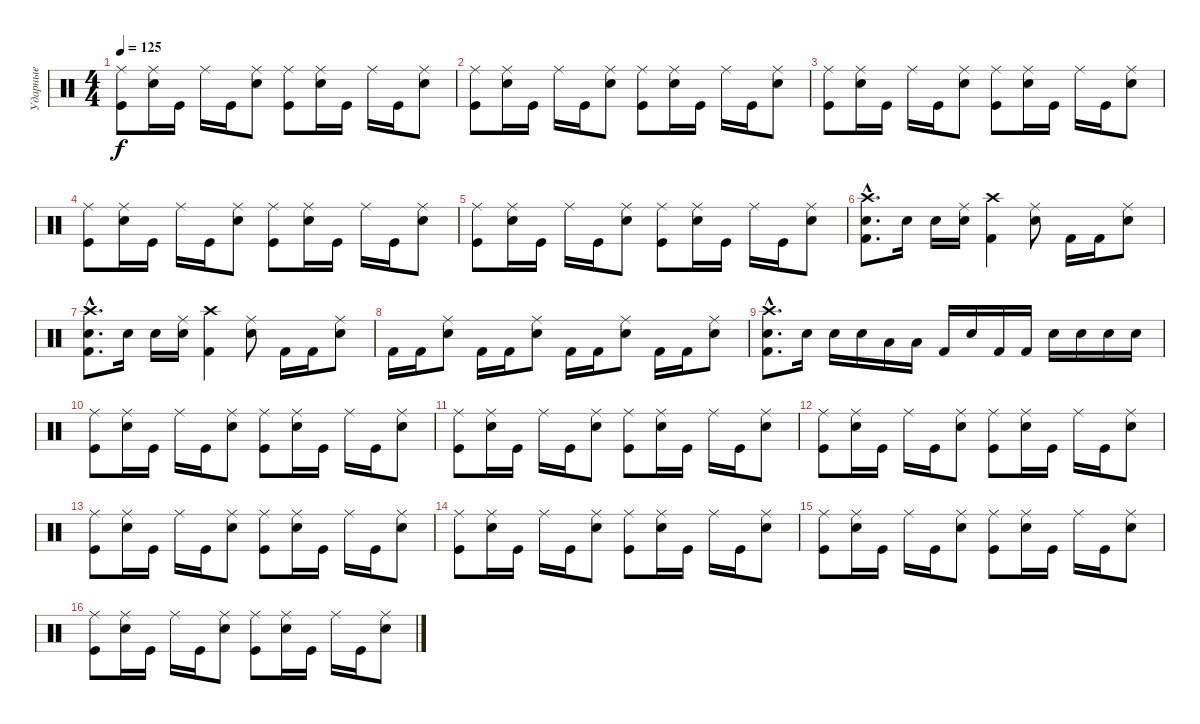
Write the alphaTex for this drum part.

\track ("Ударные" "Ударные") {instrument percussion}
\staff {score}
\articulation defaults
\ts (4 4)
\tempo 125
\clef neutral
\ks c
("Ride (middle)" "Kick (hit)").8{dy f} ("Ride (middle)" "Electric Snare (hit)").16 "Kick (hit)".16 "Ride (middle)".16 "Kick (hit)".16 ("Ride (middle)" "Electric Snare (hit)").8 ("Ride (middle)" "Kick (hit)").8 ("Ride (middle)" "Electric Snare (hit)").16 "Kick (hit)".16 "Ride (middle)".16 "Kick (hit)".16 ("Ride (middle)" "Electric Snare (hit)").8 |
("Ride (middle)" "Kick (hit)").8 ("Ride (middle)" "Electric Snare (hit)").16 "Kick (hit)".16 "Ride (middle)".16 "Kick (hit)".16 ("Ride (middle)" "Electric Snare (hit)").8 ("Ride (middle)" "Kick (hit)").8 ("Ride (middle)" "Electric Snare (hit)").16 "Kick (hit)".16 "Ride (middle)".16 "Kick (hit)".16 ("Ride (middle)" "Electric Snare (hit)").8 |
("Ride (middle)" "Kick (hit)").8 ("Ride (middle)" "Electric Snare (hit)").16 "Kick (hit)".16 "Ride (middle)".16 "Kick (hit)".16 ("Ride (middle)" "Electric Snare (hit)").8 ("Ride (middle)" "Kick (hit)").8 ("Ride (middle)" "Electric Snare (hit)").16 "Kick (hit)".16 "Ride (middle)".16 "Kick (hit)".16 ("Ride (middle)" "Electric Snare (hit)").8 |
("Ride (middle)" "Kick (hit)").8 ("Ride (middle)" "Electric Snare (hit)").16 "Kick (hit)".16 "Ride (middle)".16 "Kick (hit)".16 ("Ride (middle)" "Electric Snare (hit)").8 ("Ride (middle)" "Kick (hit)").8 ("Ride (middle)" "Electric Snare (hit)").16 "Kick (hit)".16 "Ride (middle)".16 "Kick (hit)".16 ("Ride (middle)" "Electric Snare (hit)").8 |
("Ride (middle)" "Kick (hit)").8 ("Ride (middle)" "Electric Snare (hit)").16 "Kick (hit)".16 "Ride (middle)".16 "Kick (hit)".16 ("Ride (middle)" "Electric Snare (hit)").8 ("Ride (middle)" "Kick (hit)").8 ("Ride (middle)" "Electric Snare (hit)").16 "Kick (hit)".16 "Ride (middle)".16 "Kick (hit)".16 ("Ride (middle)" "Electric Snare (hit)").8 |
("Electric Snare (hit)"{hac} "Kick (hit) 2"{hac} "Crash high (hit)"{hac}).8{d} "Electric Snare (hit)".16 "Electric Snare (hit)".16 ("Electric Snare (hit)" "Ride (middle)").16 ("Kick (hit) 2" "Crash high (hit)").4 ("Electric Snare (hit)" "Ride (middle)").8 "Kick (hit) 2".16 "Kick (hit) 2".16 ("Electric Snare (hit)" "Ride (middle)").8 |
("Electric Snare (hit)"{hac} "Kick (hit) 2"{hac} "Crash high (hit)"{hac}).8{d} "Electric Snare (hit)".16 "Electric Snare (hit)".16 ("Electric Snare (hit)" "Ride (middle)").16 ("Kick (hit) 2" "Crash high (hit)").4 ("Electric Snare (hit)" "Ride (middle)").8 "Kick (hit) 2".16 "Kick (hit) 2".16 ("Electric Snare (hit)" "Ride (middle)").8 |
"Kick (hit) 2".16 "Kick (hit) 2".16 ("Electric Snare (hit)" "Ride (middle)").8 "Kick (hit) 2".16 "Kick (hit) 2".16 ("Electric Snare (hit)" "Ride (middle)").8 "Kick (hit) 2".16 "Kick (hit) 2".16 ("Electric Snare (hit)" "Ride (middle)").8 "Kick (hit) 2".16 "Kick (hit) 2".16 ("Electric Snare (hit)" "Ride (middle)").8 |
("Electric Snare (hit)"{hac} "Kick (hit) 2"{hac} "Crash high (hit)"{hac}).8{d} "Electric Snare (hit)".16 "Electric Snare (hit)".16 "Electric Snare (hit)".16 "Low Tom (hit)".16 "Low Tom (hit)".16 "Kick (hit) 2".16 "Electric Snare (hit)".16 "Kick (hit) 2".16 "Kick (hit) 2".16 "Electric Snare (hit)".16 "Electric Snare (hit)".16 "Electric Snare (hit)".16 "Electric Snare (hit)".16 |
("Ride (middle)" "Kick (hit)").8 ("Ride (middle)" "Electric Snare (hit)").16 "Kick (hit)".16 "Ride (middle)".16 "Kick (hit)".16 ("Ride (middle)" "Electric Snare (hit)").8 ("Ride (middle)" "Kick (hit)").8 ("Ride (middle)" "Electric Snare (hit)").16 "Kick (hit)".16 "Ride (middle)".16 "Kick (hit)".16 ("Ride (middle)" "Electric Snare (hit)").8 |
("Ride (middle)" "Kick (hit)").8 ("Ride (middle)" "Electric Snare (hit)").16 "Kick (hit)".16 "Ride (middle)".16 "Kick (hit)".16 ("Ride (middle)" "Electric Snare (hit)").8 ("Ride (middle)" "Kick (hit)").8 ("Ride (middle)" "Electric Snare (hit)").16 "Kick (hit)".16 "Ride (middle)".16 "Kick (hit)".16 ("Ride (middle)" "Electric Snare (hit)").8 |
("Ride (middle)" "Kick (hit)").8 ("Ride (middle)" "Electric Snare (hit)").16 "Kick (hit)".16 "Ride (middle)".16 "Kick (hit)".16 ("Ride (middle)" "Electric Snare (hit)").8 ("Ride (middle)" "Kick (hit)").8 ("Ride (middle)" "Electric Snare (hit)").16 "Kick (hit)".16 "Ride (middle)".16 "Kick (hit)".16 ("Ride (middle)" "Electric Snare (hit)").8 |
("Ride (middle)" "Kick (hit)").8 ("Ride (middle)" "Electric Snare (hit)").16 "Kick (hit)".16 "Ride (middle)".16 "Kick (hit)".16 ("Ride (middle)" "Electric Snare (hit)").8 ("Ride (middle)" "Kick (hit)").8 ("Ride (middle)" "Electric Snare (hit)").16 "Kick (hit)".16 "Ride (middle)".16 "Kick (hit)".16 ("Ride (middle)" "Electric Snare (hit)").8 |
("Ride (middle)" "Kick (hit)").8 ("Ride (middle)" "Electric Snare (hit)").16 "Kick (hit)".16 "Ride (middle)".16 "Kick (hit)".16 ("Ride (middle)" "Electric Snare (hit)").8 ("Ride (middle)" "Kick (hit)").8 ("Ride (middle)" "Electric Snare (hit)").16 "Kick (hit)".16 "Ride (middle)".16 "Kick (hit)".16 ("Ride (middle)" "Electric Snare (hit)").8 |
("Ride (middle)" "Kick (hit)").8 ("Ride (middle)" "Electric Snare (hit)").16 "Kick (hit)".16 "Ride (middle)".16 "Kick (hit)".16 ("Ride (middle)" "Electric Snare (hit)").8 ("Ride (middle)" "Kick (hit)").8 ("Ride (middle)" "Electric Snare (hit)").16 "Kick (hit)".16 "Ride (middle)".16 "Kick (hit)".16 ("Ride (middle)" "Electric Snare (hit)").8 |
("Ride (middle)" "Kick (hit)").8 ("Ride (middle)" "Electric Snare (hit)").16 "Kick (hit)".16 "Ride (middle)".16 "Kick (hit)".16 ("Ride (middle)" "Electric Snare (hit)").8 ("Ride (middle)" "Kick (hit)").8 ("Ride (middle)" "Electric Snare (hit)").16 "Kick (hit)".16 "Ride (middle)".16 "Kick (hit)".16 ("Ride (middle)" "Electric Snare (hit)").8
